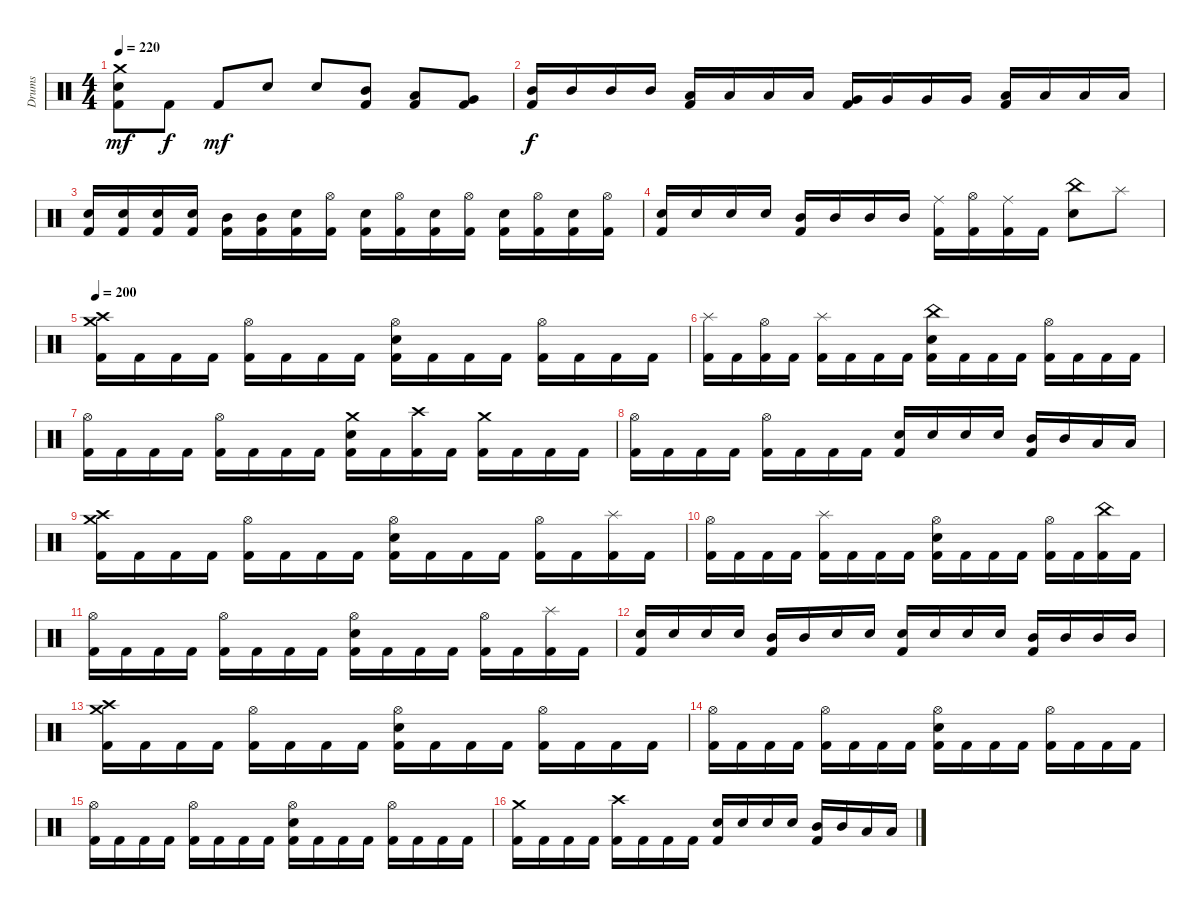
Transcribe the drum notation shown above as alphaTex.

\track ("Drums" "Drums") {instrument percussion}
\staff
\articulation defaults
\ts (4 4)
\tempo 220
\clef neutral
\ks c
("Crash medium (hit)" "Electric Snare (hit)" "Kick (hit) 2").8{dy mf} "Kick (hit) 2".8{dy f} "Kick (hit) 2".8{dy mf} "Electric Snare (hit)".8 "Electric Snare (hit)".8 ("Mid Tom (hit)" "Kick (hit) 2").8 ("Low Tom (hit)" "Kick (hit) 2").8 ("Very Low Tom (hit)" "Kick (hit) 2").8 |
("Mid Tom (hit)" "Kick (hit) 2").16{dy f} "Mid Tom (hit)".16 "Mid Tom (hit)".16 "Mid Tom (hit)".16 ("Low Tom (hit)" "Kick (hit) 2").16 "Low Tom (hit)".16 "Low Tom (hit)".16 "Low Tom (hit)".16 ("Very Low Tom (hit)" "Kick (hit) 2").16 "Very Low Tom (hit)".16 "Very Low Tom (hit)".16 "Very Low Tom (hit)".16 ("Low Floor Tom (hit)" "Kick (hit) 2").16 "Low Floor Tom (hit)".16 "Low Floor Tom (hit)".16 "Low Floor Tom (hit)".16 |
("Electric Snare (hit)" "Kick (hit) 2").16 ("Electric Snare (hit)" "Kick (hit) 2").16 ("Electric Snare (hit)" "Kick (hit) 2").16 ("Electric Snare (hit)" "Kick (hit) 2").16 ("Mid Tom (hit)" "Kick (hit) 2").16 ("Mid Tom (hit)" "Kick (hit) 2").16 ("Electric Snare (hit)" "Kick (hit) 2").16 ("Hi-Hat (open)" "Kick (hit) 2").16 ("Electric Snare (hit)" "Kick (hit) 2").16 ("Hi-Hat (open)" "Kick (hit) 2").16 ("Electric Snare (hit)" "Kick (hit) 2").16 ("Hi-Hat (open)" "Kick (hit) 2").16 ("Electric Snare (hit)" "Kick (hit) 2").16 ("Hi-Hat (open)" "Kick (hit) 2").16 ("Electric Snare (hit)" "Kick (hit) 2").16 ("Hi-Hat (open)" "Kick (hit) 2").16 |
("Electric Snare (hit)" "Kick (hit) 2").16 "Electric Snare (hit)".16 "Electric Snare (hit)".16 "Electric Snare (hit)".16 ("Mid Tom (hit)" "Kick (hit) 2").16 "Mid Tom (hit)".16 "Mid Tom (hit)".16 "Mid Tom (hit)".16 ("Ride (middle)" "Kick (hit) 2").16 ("Hi-Hat (open)" "Kick (hit) 2").16 ("Ride (middle)" "Kick (hit) 2").16 "Kick (hit) 2".16 ("China (hit)" "Electric Snare (hit)").8 "Splash (hit)".8 |
\tempo 200
("Crash medium (hit)" "Crash high (hit)" "Kick (hit) 2").16 "Kick (hit) 2".16 "Kick (hit) 2".16 "Kick (hit) 2".16 ("Hi-Hat (open)" "Kick (hit) 2").16 "Kick (hit) 2".16 "Kick (hit) 2".16 "Kick (hit) 2".16 ("Hi-Hat (open)" "Electric Snare (hit)" "Kick (hit) 2").16 "Kick (hit) 2".16 "Kick (hit) 2".16 "Kick (hit) 2".16 ("Hi-Hat (open)" "Kick (hit) 2").16 "Kick (hit) 2".16 "Kick (hit) 2".16 "Kick (hit) 2".16 |
("Splash (hit)" "Kick (hit) 2").16 "Kick (hit) 2".16 ("Hi-Hat (open)" "Kick (hit) 2").16 "Kick (hit) 2".16 ("Splash (hit)" "Kick (hit) 2").16 "Kick (hit) 2".16 "Kick (hit) 2".16 "Kick (hit) 2".16 ("China (hit)" "Electric Snare (hit)" "Kick (hit) 2").16 "Kick (hit) 2".16 "Kick (hit) 2".16 "Kick (hit) 2".16 ("Hi-Hat (open)" "Kick (hit) 2").16 "Kick (hit) 2".16 "Kick (hit) 2".16 "Kick (hit) 2".16 |
("Hi-Hat (open)" "Kick (hit) 2").16 "Kick (hit) 2".16 "Kick (hit) 2".16 "Kick (hit) 2".16 ("Hi-Hat (open)" "Kick (hit) 2").16 "Kick (hit) 2".16 "Kick (hit) 2".16 "Kick (hit) 2".16 ("Crash medium (hit)" "Electric Snare (hit)" "Kick (hit) 2").16 "Kick (hit) 2".16 ("Crash high (hit)" "Kick (hit) 2").16 "Kick (hit) 2".16 ("Crash medium (hit)" "Kick (hit) 2").16 "Kick (hit) 2".16 "Kick (hit) 2".16 "Kick (hit) 2".16 |
("Hi-Hat (open)" "Kick (hit) 2").16 "Kick (hit) 2".16 "Kick (hit) 2".16 "Kick (hit) 2".16 ("Hi-Hat (open)" "Kick (hit) 2").16 "Kick (hit) 2".16 "Kick (hit) 2".16 "Kick (hit) 2".16 ("Electric Snare (hit)" "Kick (hit) 2").16 "Electric Snare (hit)".16 "Electric Snare (hit)".16 "Electric Snare (hit)".16 ("Mid Tom (hit)" "Kick (hit) 2").16 "Mid Tom (hit)".16 "Low Tom (hit)".16 "Low Tom (hit)".16 |
("Crash medium (hit)" "Crash high (hit)" "Kick (hit) 2").16 "Kick (hit) 2".16 "Kick (hit) 2".16 "Kick (hit) 2".16 ("Hi-Hat (open)" "Kick (hit) 2").16 "Kick (hit) 2".16 "Kick (hit) 2".16 "Kick (hit) 2".16 ("Hi-Hat (open)" "Electric Snare (hit)" "Kick (hit) 2").16 "Kick (hit) 2".16 "Kick (hit) 2".16 "Kick (hit) 2".16 ("Hi-Hat (open)" "Kick (hit) 2").16 "Kick (hit) 2".16 ("Splash (hit)" "Kick (hit) 2").16 "Kick (hit) 2".16 |
("Hi-Hat (open)" "Kick (hit) 2").16 "Kick (hit) 2".16 "Kick (hit) 2".16 "Kick (hit) 2".16 ("Splash (hit)" "Kick (hit) 2").16 "Kick (hit) 2".16 "Kick (hit) 2".16 "Kick (hit) 2".16 ("Hi-Hat (open)" "Electric Snare (hit)" "Kick (hit) 2").16 "Kick (hit) 2".16 "Kick (hit) 2".16 "Kick (hit) 2".16 ("Hi-Hat (open)" "Kick (hit) 2").16 "Kick (hit) 2".16 ("China (hit)" "Kick (hit) 2").16 "Kick (hit) 2".16 |
("Hi-Hat (open)" "Kick (hit) 2").16 "Kick (hit) 2".16 "Kick (hit) 2".16 "Kick (hit) 2".16 ("Hi-Hat (open)" "Kick (hit) 2").16 "Kick (hit) 2".16 "Kick (hit) 2".16 "Kick (hit) 2".16 ("Hi-Hat (open)" "Electric Snare (hit)" "Kick (hit) 2").16 "Kick (hit) 2".16 "Kick (hit) 2".16 "Kick (hit) 2".16 ("Hi-Hat (open)" "Kick (hit) 2").16 "Kick (hit) 2".16 ("Splash (hit)" "Kick (hit) 2").16 "Kick (hit) 2".16 |
("Electric Snare (hit)" "Kick (hit) 2").16 "Electric Snare (hit)".16 "Electric Snare (hit)".16 "Electric Snare (hit)".16 ("Mid Tom (hit)" "Kick (hit) 2").16 "Mid Tom (hit)".16 "Electric Snare (hit)".16 "Electric Snare (hit)".16 ("Electric Snare (hit)" "Kick (hit) 2").16 "Electric Snare (hit)".16 "Electric Snare (hit)".16 "Electric Snare (hit)".16 ("Mid Tom (hit)" "Kick (hit) 2").16 "Mid Tom (hit)".16 "Mid Tom (hit)".16 "Mid Tom (hit)".16 |
("Crash medium (hit)" "Crash high (hit)" "Kick (hit) 2").16 "Kick (hit) 2".16 "Kick (hit) 2".16 "Kick (hit) 2".16 ("Hi-Hat (open)" "Kick (hit) 2").16 "Kick (hit) 2".16 "Kick (hit) 2".16 "Kick (hit) 2".16 ("Hi-Hat (open)" "Electric Snare (hit)" "Kick (hit) 2").16 "Kick (hit) 2".16 "Kick (hit) 2".16 "Kick (hit) 2".16 ("Hi-Hat (open)" "Kick (hit) 2").16 "Kick (hit) 2".16 "Kick (hit) 2".16 "Kick (hit) 2".16 |
("Hi-Hat (open)" "Kick (hit) 2").16 "Kick (hit) 2".16 "Kick (hit) 2".16 "Kick (hit) 2".16 ("Hi-Hat (open)" "Kick (hit) 2").16 "Kick (hit) 2".16 "Kick (hit) 2".16 "Kick (hit) 2".16 ("Hi-Hat (open)" "Electric Snare (hit)" "Kick (hit) 2").16 "Kick (hit) 2".16 "Kick (hit) 2".16 "Kick (hit) 2".16 ("Hi-Hat (open)" "Kick (hit) 2").16 "Kick (hit) 2".16 "Kick (hit) 2".16 "Kick (hit) 2".16 |
("Hi-Hat (open)" "Kick (hit) 2").16 "Kick (hit) 2".16 "Kick (hit) 2".16 "Kick (hit) 2".16 ("Hi-Hat (open)" "Kick (hit) 2").16 "Kick (hit) 2".16 "Kick (hit) 2".16 "Kick (hit) 2".16 ("Hi-Hat (open)" "Electric Snare (hit)" "Kick (hit) 2").16 "Kick (hit) 2".16 "Kick (hit) 2".16 "Kick (hit) 2".16 ("Hi-Hat (open)" "Kick (hit) 2").16 "Kick (hit) 2".16 "Kick (hit) 2".16 "Kick (hit) 2".16 |
("Crash medium (hit)" "Kick (hit) 2").16 "Kick (hit) 2".16 "Kick (hit) 2".16 "Kick (hit) 2".16 ("Crash high (hit)" "Kick (hit) 2").16 "Kick (hit) 2".16 "Kick (hit) 2".16 "Kick (hit) 2".16 ("Electric Snare (hit)" "Kick (hit) 2").16 "Electric Snare (hit)".16 "Electric Snare (hit)".16 "Electric Snare (hit)".16 ("Mid Tom (hit)" "Kick (hit) 2").16 "Mid Tom (hit)".16 "Low Tom (hit)".16 "Low Tom (hit)".16
